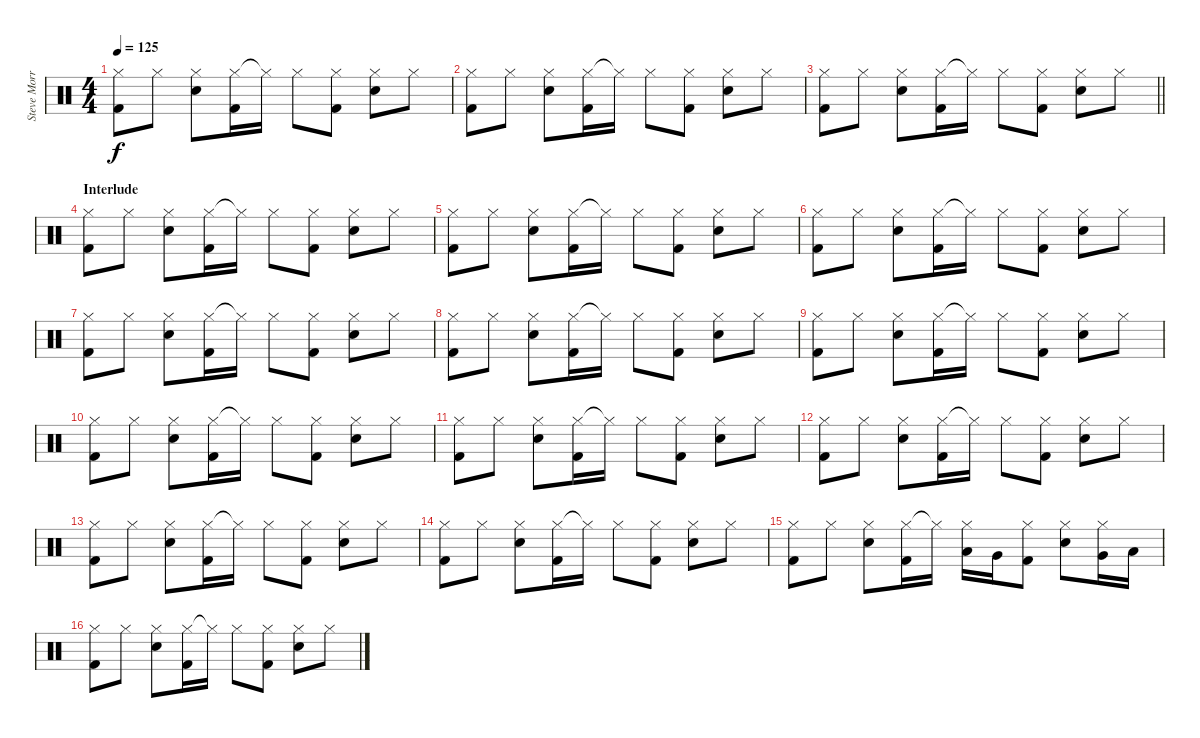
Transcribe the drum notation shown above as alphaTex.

\track ("Steve Morris" "Steve Morr") {instrument percussion}
\staff {score}
\articulation defaults
\ts (4 4)
\tempo 125
\clef neutral
\ks c
("Hi-Hat (closed)" "Kick (hit) 2").8{dy f} "Hi-Hat (closed)".8 ("Hi-Hat (closed)" "Electric Snare (hit)").8 ("Hi-Hat (closed)" "Kick (hit) 2").16 "Hi-Hat (closed)"{t}.16 "Hi-Hat (closed)".8 ("Hi-Hat (closed)" "Kick (hit) 2").8 ("Hi-Hat (closed)" "Electric Snare (hit)").8 "Hi-Hat (closed)".8 |
("Hi-Hat (closed)" "Kick (hit) 2").8 "Hi-Hat (closed)".8 ("Hi-Hat (closed)" "Electric Snare (hit)").8 ("Hi-Hat (closed)" "Kick (hit) 2").16 "Hi-Hat (closed)"{t}.16 "Hi-Hat (closed)".8 ("Hi-Hat (closed)" "Kick (hit) 2").8 ("Hi-Hat (closed)" "Electric Snare (hit)").8 "Hi-Hat (closed)".8 |
\barLineRight lightlight
("Hi-Hat (closed)" "Kick (hit) 2").8 "Hi-Hat (closed)".8 ("Hi-Hat (closed)" "Electric Snare (hit)").8 ("Hi-Hat (closed)" "Kick (hit) 2").16 "Hi-Hat (closed)"{t}.16 "Hi-Hat (closed)".8 ("Hi-Hat (closed)" "Kick (hit) 2").8 ("Hi-Hat (closed)" "Electric Snare (hit)").8 "Hi-Hat (closed)".8 |
\section ("" "Interlude")
("Hi-Hat (closed)" "Kick (hit) 2").8 "Hi-Hat (closed)".8 ("Hi-Hat (closed)" "Electric Snare (hit)").8 ("Hi-Hat (closed)" "Kick (hit) 2").16 "Hi-Hat (closed)"{t}.16 "Hi-Hat (closed)".8 ("Hi-Hat (closed)" "Kick (hit) 2").8 ("Hi-Hat (closed)" "Electric Snare (hit)").8 "Hi-Hat (closed)".8 |
("Hi-Hat (closed)" "Kick (hit) 2").8 "Hi-Hat (closed)".8 ("Hi-Hat (closed)" "Electric Snare (hit)").8 ("Hi-Hat (closed)" "Kick (hit) 2").16 "Hi-Hat (closed)"{t}.16 "Hi-Hat (closed)".8 ("Hi-Hat (closed)" "Kick (hit) 2").8 ("Hi-Hat (closed)" "Electric Snare (hit)").8 "Hi-Hat (closed)".8 |
("Hi-Hat (closed)" "Kick (hit) 2").8 "Hi-Hat (closed)".8 ("Hi-Hat (closed)" "Electric Snare (hit)").8 ("Hi-Hat (closed)" "Kick (hit) 2").16 "Hi-Hat (closed)"{t}.16 "Hi-Hat (closed)".8 ("Hi-Hat (closed)" "Kick (hit) 2").8 ("Hi-Hat (closed)" "Electric Snare (hit)").8 "Hi-Hat (closed)".8 |
("Hi-Hat (closed)" "Kick (hit) 2").8 "Hi-Hat (closed)".8 ("Hi-Hat (closed)" "Electric Snare (hit)").8 ("Hi-Hat (closed)" "Kick (hit) 2").16 "Hi-Hat (closed)"{t}.16 "Hi-Hat (closed)".8 ("Hi-Hat (closed)" "Kick (hit) 2").8 ("Hi-Hat (closed)" "Electric Snare (hit)").8 "Hi-Hat (closed)".8 |
("Hi-Hat (closed)" "Kick (hit) 2").8 "Hi-Hat (closed)".8 ("Hi-Hat (closed)" "Electric Snare (hit)").8 ("Hi-Hat (closed)" "Kick (hit) 2").16 "Hi-Hat (closed)"{t}.16 "Hi-Hat (closed)".8 ("Hi-Hat (closed)" "Kick (hit) 2").8 ("Hi-Hat (closed)" "Electric Snare (hit)").8 "Hi-Hat (closed)".8 |
("Hi-Hat (closed)" "Kick (hit) 2").8 "Hi-Hat (closed)".8 ("Hi-Hat (closed)" "Electric Snare (hit)").8 ("Hi-Hat (closed)" "Kick (hit) 2").16 "Hi-Hat (closed)"{t}.16 "Hi-Hat (closed)".8 ("Hi-Hat (closed)" "Kick (hit) 2").8 ("Hi-Hat (closed)" "Electric Snare (hit)").8 "Hi-Hat (closed)".8 |
("Hi-Hat (closed)" "Kick (hit) 2").8 "Hi-Hat (closed)".8 ("Hi-Hat (closed)" "Electric Snare (hit)").8 ("Hi-Hat (closed)" "Kick (hit) 2").16 "Hi-Hat (closed)"{t}.16 "Hi-Hat (closed)".8 ("Hi-Hat (closed)" "Kick (hit) 2").8 ("Hi-Hat (closed)" "Electric Snare (hit)").8 "Hi-Hat (closed)".8 |
("Hi-Hat (closed)" "Kick (hit) 2").8 "Hi-Hat (closed)".8 ("Hi-Hat (closed)" "Electric Snare (hit)").8 ("Hi-Hat (closed)" "Kick (hit) 2").16 "Hi-Hat (closed)"{t}.16 "Hi-Hat (closed)".8 ("Hi-Hat (closed)" "Kick (hit) 2").8 ("Hi-Hat (closed)" "Electric Snare (hit)").8 "Hi-Hat (closed)".8 |
("Hi-Hat (closed)" "Kick (hit) 2").8 "Hi-Hat (closed)".8 ("Hi-Hat (closed)" "Electric Snare (hit)").8 ("Hi-Hat (closed)" "Kick (hit) 2").16 "Hi-Hat (closed)"{t}.16 "Hi-Hat (closed)".8 ("Hi-Hat (closed)" "Kick (hit) 2").8 ("Hi-Hat (closed)" "Electric Snare (hit)").8 "Hi-Hat (closed)".8 |
("Hi-Hat (closed)" "Kick (hit) 2").8 "Hi-Hat (closed)".8 ("Hi-Hat (closed)" "Electric Snare (hit)").8 ("Hi-Hat (closed)" "Kick (hit) 2").16 "Hi-Hat (closed)"{t}.16 "Hi-Hat (closed)".8 ("Hi-Hat (closed)" "Kick (hit) 2").8 ("Hi-Hat (closed)" "Electric Snare (hit)").8 "Hi-Hat (closed)".8 |
("Hi-Hat (closed)" "Kick (hit) 2").8 "Hi-Hat (closed)".8 ("Hi-Hat (closed)" "Electric Snare (hit)").8 ("Hi-Hat (closed)" "Kick (hit) 2").16 "Hi-Hat (closed)"{t}.16 "Hi-Hat (closed)".8 ("Hi-Hat (closed)" "Kick (hit) 2").8 ("Hi-Hat (closed)" "Electric Snare (hit)").8 "Hi-Hat (closed)".8 |
("Hi-Hat (closed)" "Kick (hit) 2").8 "Hi-Hat (closed)".8 ("Hi-Hat (closed)" "Electric Snare (hit)").8 ("Hi-Hat (closed)" "Kick (hit) 2").16 "Hi-Hat (closed)"{t}.16 ("Hi-Hat (closed)" "Low Tom (hit)").16 "Very Low Tom (hit)".16 ("Hi-Hat (closed)" "Kick (hit) 2").8 ("Hi-Hat (closed)" "Electric Snare (hit)").8 ("Hi-Hat (closed)" "Very Low Tom (hit)").16 "Low Floor Tom (hit)".16 |
("Hi-Hat (closed)" "Kick (hit) 2").8 "Hi-Hat (closed)".8 ("Hi-Hat (closed)" "Electric Snare (hit)").8 ("Hi-Hat (closed)" "Kick (hit) 2").16 "Hi-Hat (closed)"{t}.16 "Hi-Hat (closed)".8 ("Hi-Hat (closed)" "Kick (hit) 2").8 ("Hi-Hat (closed)" "Electric Snare (hit)").8 "Hi-Hat (closed)".8
